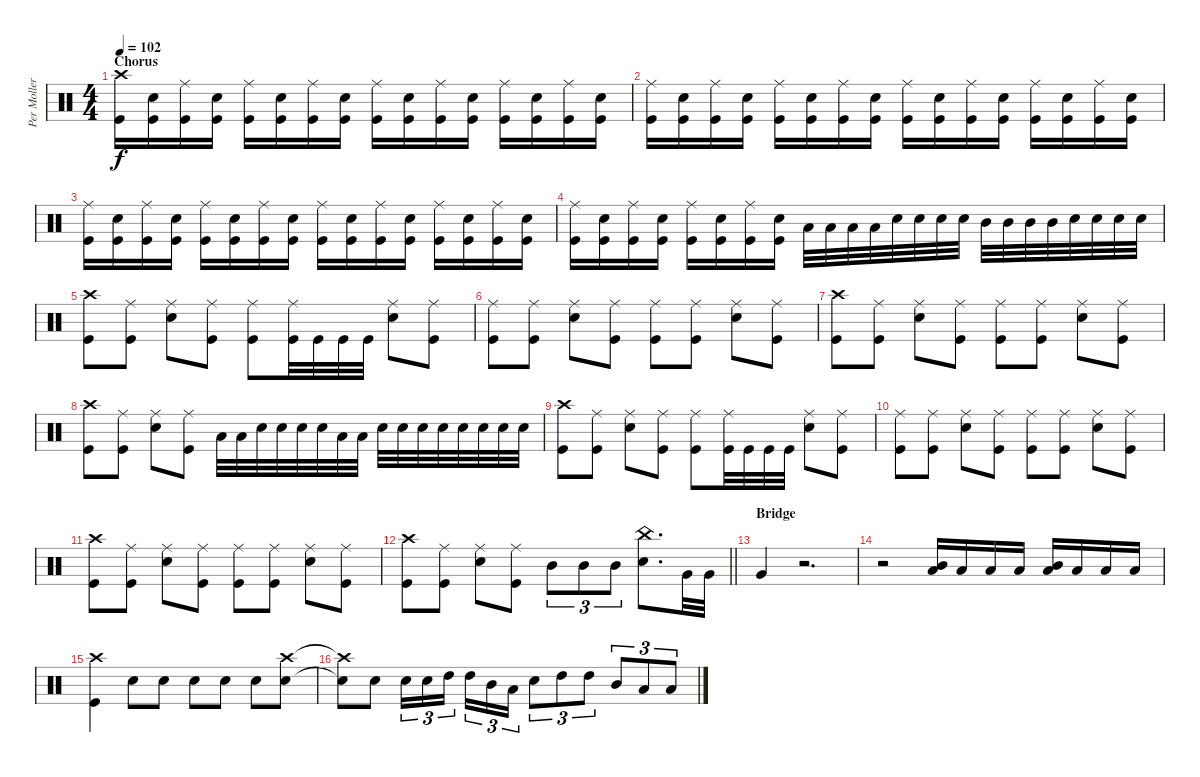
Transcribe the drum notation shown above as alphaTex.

\track ("Per Moller Jensen" "Per Moller") {instrument percussion}
\staff {score}
\articulation defaults
\ts (4 4)
\section ("" "Chorus")
\tempo 102
\clef neutral
\ks c
("Crash high (hit)" "Kick (hit)").16{dy f} ("Snare (hit) 2" "Kick (hit)").16 ("Ride (middle)" "Kick (hit)").16 ("Snare (hit) 2" "Kick (hit)").16 ("Ride (middle)" "Kick (hit)").16 ("Snare (hit) 2" "Kick (hit)").16 ("Ride (middle)" "Kick (hit)").16 ("Snare (hit) 2" "Kick (hit)").16 ("Ride (middle)" "Kick (hit)").16 ("Snare (hit) 2" "Kick (hit)").16 ("Ride (middle)" "Kick (hit)").16 ("Snare (hit) 2" "Kick (hit)").16 ("Ride (middle)" "Kick (hit)").16 ("Snare (hit) 2" "Kick (hit)").16 ("Ride (middle)" "Kick (hit)").16 ("Snare (hit) 2" "Kick (hit)").16 |
("Ride (middle)" "Kick (hit)").16 ("Snare (hit) 2" "Kick (hit)").16 ("Ride (middle)" "Kick (hit)").16 ("Snare (hit) 2" "Kick (hit)").16 ("Ride (middle)" "Kick (hit)").16 ("Snare (hit) 2" "Kick (hit)").16 ("Ride (middle)" "Kick (hit)").16 ("Snare (hit) 2" "Kick (hit)").16 ("Ride (middle)" "Kick (hit)").16 ("Snare (hit) 2" "Kick (hit)").16 ("Ride (middle)" "Kick (hit)").16 ("Snare (hit) 2" "Kick (hit)").16 ("Ride (middle)" "Kick (hit)").16 ("Snare (hit) 2" "Kick (hit)").16 ("Ride (middle)" "Kick (hit)").16 ("Snare (hit) 2" "Kick (hit)").16 |
("Ride (middle)" "Kick (hit)").16 ("Snare (hit) 2" "Kick (hit)").16 ("Ride (middle)" "Kick (hit)").16 ("Snare (hit) 2" "Kick (hit)").16 ("Ride (middle)" "Kick (hit)").16 ("Snare (hit) 2" "Kick (hit)").16 ("Ride (middle)" "Kick (hit)").16 ("Snare (hit) 2" "Kick (hit)").16 ("Ride (middle)" "Kick (hit)").16 ("Snare (hit) 2" "Kick (hit)").16 ("Ride (middle)" "Kick (hit)").16 ("Snare (hit) 2" "Kick (hit)").16 ("Ride (middle)" "Kick (hit)").16 ("Snare (hit) 2" "Kick (hit)").16 ("Ride (middle)" "Kick (hit)").16 ("Snare (hit) 2" "Kick (hit)").16 |
("Ride (middle)" "Kick (hit)").16 ("Snare (hit) 2" "Kick (hit)").16 ("Ride (middle)" "Kick (hit)").16 ("Snare (hit) 2" "Kick (hit)").16 ("Ride (middle)" "Kick (hit)").16 ("Snare (hit) 2" "Kick (hit)").16 ("Ride (middle)" "Kick (hit)").16 ("Snare (hit) 2" "Kick (hit)").16 "Low Tom (hit)".32 "Low Tom (hit)".32 "Low Tom (hit)".32 "Low Tom (hit)".32 "Snare (hit) 2".32 "Snare (hit) 2".32 "Snare (hit) 2".32 "Snare (hit) 2".32 "Mid Tom (hit)".32 "Mid Tom (hit)".32 "Mid Tom (hit)".32 "Mid Tom (hit)".32 "Snare (hit) 2".32 "Snare (hit) 2".32 "Snare (hit) 2".32 "Snare (hit) 2".32 |
("Crash high (hit)" "Kick (hit)").8 ("Ride (middle)" "Kick (hit)").8 ("Ride (middle)" "Snare (hit) 2").8 ("Ride (middle)" "Kick (hit)").8 ("Ride (middle)" "Kick (hit)").8 ("Ride (middle)" "Kick (hit)").32 "Kick (hit)".32 "Kick (hit)".32 "Kick (hit)".32 ("Ride (middle)" "Snare (hit) 2").8 ("Ride (middle)" "Kick (hit)").8 |
("Ride (middle)" "Kick (hit)").8 ("Ride (middle)" "Kick (hit)").8 ("Ride (middle)" "Snare (hit) 2").8 ("Ride (middle)" "Kick (hit)").8 ("Ride (middle)" "Kick (hit)").8 ("Ride (middle)" "Kick (hit)").8 ("Ride (middle)" "Snare (hit) 2").8 ("Ride (middle)" "Kick (hit)").8 |
("Crash high (hit)" "Kick (hit)").8 ("Ride (middle)" "Kick (hit)").8 ("Ride (middle)" "Snare (hit) 2").8 ("Ride (middle)" "Kick (hit)").8 ("Ride (middle)" "Kick (hit)").8 ("Ride (middle)" "Kick (hit)").8 ("Ride (middle)" "Snare (hit) 2").8 ("Ride (middle)" "Kick (hit)").8 |
("Crash high (hit)" "Kick (hit)").8 ("Ride (middle)" "Kick (hit)").8 ("Ride (middle)" "Snare (hit) 2").8 ("Ride (middle)" "Kick (hit)").8 "Low Tom (hit)".32 "Low Tom (hit)".32 "Snare (hit) 2".32 "Snare (hit) 2".32 "Snare (hit) 2".32 "Snare (hit) 2".32 "Low Tom (hit)".32 "Low Tom (hit)".32 "Snare (hit) 2".32 "Snare (hit) 2".32 "Snare (hit) 2".32 "Snare (hit) 2".32 "Snare (hit) 2".32 "Snare (hit) 2".32 "Snare (hit) 2".32 "Snare (hit) 2".32 |
("Crash high (hit)" "Kick (hit)").8 ("Ride (middle)" "Kick (hit)").8 ("Ride (middle)" "Snare (hit) 2").8 ("Ride (middle)" "Kick (hit)").8 ("Ride (middle)" "Kick (hit)").8 ("Ride (middle)" "Kick (hit)").32 "Kick (hit)".32 "Kick (hit)".32 "Kick (hit)".32 ("Ride (middle)" "Snare (hit) 2").8 ("Ride (middle)" "Kick (hit)").8 |
("Ride (middle)" "Kick (hit)").8 ("Ride (middle)" "Kick (hit)").8 ("Ride (middle)" "Snare (hit) 2").8 ("Ride (middle)" "Kick (hit)").8 ("Ride (middle)" "Kick (hit)").8 ("Ride (middle)" "Kick (hit)").8 ("Ride (middle)" "Snare (hit) 2").8 ("Ride (middle)" "Kick (hit)").8 |
("Crash high (hit)" "Kick (hit)").8 ("Ride (middle)" "Kick (hit)").8 ("Ride (middle)" "Snare (hit) 2").8 ("Ride (middle)" "Kick (hit)").8 ("Ride (middle)" "Kick (hit)").8 ("Ride (middle)" "Kick (hit)").8 ("Ride (middle)" "Snare (hit) 2").8 ("Ride (middle)" "Kick (hit)").8 |
\barLineRight lightlight
("Crash high (hit)" "Kick (hit)").8 ("Ride (middle)" "Kick (hit)").8 ("Ride (middle)" "Snare (hit) 2").8 ("Ride (middle)" "Kick (hit)").8 "Mid Tom (hit)".8{tu (3 2)} "Mid Tom (hit)".8{tu (3 2)} "Mid Tom (hit)".8{tu (3 2)} ("China (hit)" "Snare (hit) 2").8{d} "Very Low Tom (hit)".32 "Very Low Tom (hit)".32 |
\section ("" "Bridge")
"Very Low Tom (hit)".4 r.2{d} |
r.2 ("Mid Tom (hit)" "Low Tom (hit)").16 "Low Tom (hit)".16 "Low Tom (hit)".16 "Low Tom (hit)".16 ("Mid Tom (hit)" "Low Tom (hit)").16 "Low Tom (hit)".16 "Low Tom (hit)".16 "Low Tom (hit)".16 |
("Crash high (hit)" "Kick (hit)").4 "Snare (hit) 2".8 "Snare (hit) 2".8 "Snare (hit) 2".8 "Snare (hit) 2".8 "Snare (hit) 2".8 ("Crash high (hit)" "Snare (hit) 2").8 |
("Crash high (hit)"{t} "Snare (hit) 2"{t}).8 "Snare (hit) 2".8 "Snare (hit) 2".16{tu (3 2)} "Snare (hit) 2".16{tu (3 2)} "High Tom (hit)".16{tu (3 2) beam splitsecondary} "High Tom (hit)".16{tu (3 2)} "Mid Tom (hit)".16{tu (3 2)} "Low Tom (hit)".16{tu (3 2)} "Snare (hit) 2".8{tu (3 2)} "High Tom (hit)".8{tu (3 2)} "High Tom (hit)".8{tu (3 2)} "Mid Tom (hit)".8{tu (3 2)} "Low Tom (hit)".8{tu (3 2)} "Low Tom (hit)".8{tu (3 2)}
